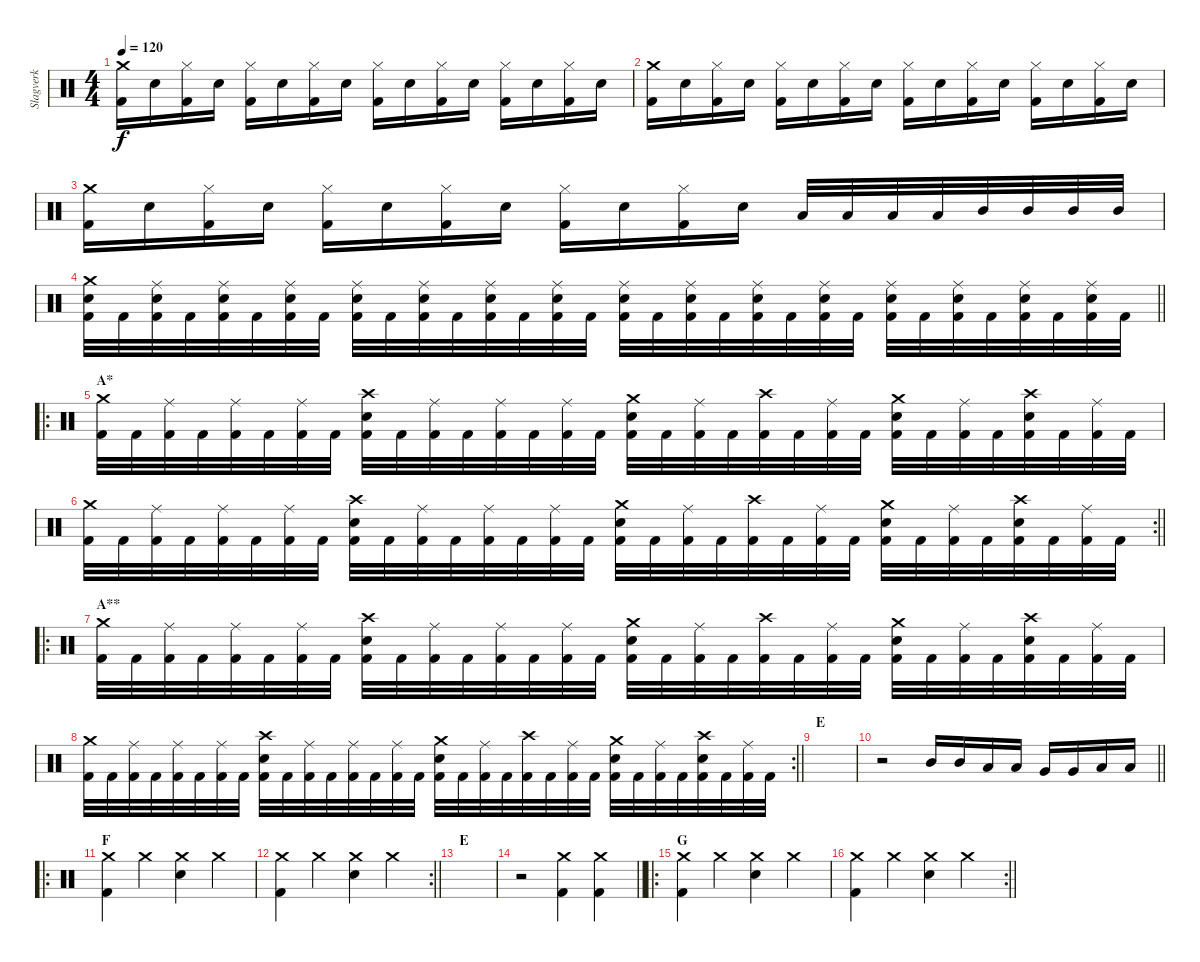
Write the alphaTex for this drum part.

\track ("Slagverk" "Slagverk") {instrument percussion}
\staff {score}
\articulation defaults
\ts (4 4)
\tempo 120
\clef neutral
\ks c
("Crash medium (hit)" "Kick (hit) 2").16{dy f} "Electric Snare (hit)".16 ("Hi-Hat (closed)" "Kick (hit) 2").16 "Electric Snare (hit)".16 ("Hi-Hat (closed)" "Kick (hit) 2").16 "Electric Snare (hit)".16 ("Hi-Hat (closed)" "Kick (hit) 2").16 "Electric Snare (hit)".16 ("Hi-Hat (closed)" "Kick (hit) 2").16 "Electric Snare (hit)".16 ("Hi-Hat (closed)" "Kick (hit) 2").16 "Electric Snare (hit)".16 ("Hi-Hat (closed)" "Kick (hit) 2").16 "Electric Snare (hit)".16 ("Hi-Hat (closed)" "Kick (hit) 2").16 "Electric Snare (hit)".16 |
("Crash medium (hit)" "Kick (hit) 2").16 "Electric Snare (hit)".16 ("Hi-Hat (closed)" "Kick (hit) 2").16 "Electric Snare (hit)".16 ("Hi-Hat (closed)" "Kick (hit) 2").16 "Electric Snare (hit)".16 ("Hi-Hat (closed)" "Kick (hit) 2").16 "Electric Snare (hit)".16 ("Hi-Hat (closed)" "Kick (hit) 2").16 "Electric Snare (hit)".16 ("Hi-Hat (closed)" "Kick (hit) 2").16 "Electric Snare (hit)".16 ("Hi-Hat (closed)" "Kick (hit) 2").16 "Electric Snare (hit)".16 ("Hi-Hat (closed)" "Kick (hit) 2").16 "Electric Snare (hit)".16 |
("Crash medium (hit)" "Kick (hit) 2").16 "Electric Snare (hit)".16 ("Hi-Hat (closed)" "Kick (hit) 2").16 "Electric Snare (hit)".16 ("Hi-Hat (closed)" "Kick (hit) 2").16 "Electric Snare (hit)".16 ("Hi-Hat (closed)" "Kick (hit) 2").16 "Electric Snare (hit)".16 ("Hi-Hat (closed)" "Kick (hit) 2").16 "Electric Snare (hit)".16 ("Hi-Hat (closed)" "Kick (hit) 2").16 "Electric Snare (hit)".16 "Low Tom (hit)".32 "Low Tom (hit)".32 "Low Tom (hit)".32 "Low Tom (hit)".32 "Mid Tom (hit)".32 "Mid Tom (hit)".32 "Mid Tom (hit)".32 "Mid Tom (hit)".32 |
\barLineRight lightlight
("Crash medium (hit)" "Electric Snare (hit)" "Kick (hit) 2").32 "Kick (hit) 2".32 ("Ride (middle)" "Electric Snare (hit)" "Kick (hit) 2").32 "Kick (hit) 2".32 ("Ride (middle)" "Electric Snare (hit)" "Kick (hit) 2").32 "Kick (hit) 2".32 ("Ride (middle)" "Electric Snare (hit)" "Kick (hit) 2").32 "Kick (hit) 2".32 ("Ride (middle)" "Electric Snare (hit)" "Kick (hit) 2").32 "Kick (hit) 2".32 ("Ride (middle)" "Electric Snare (hit)" "Kick (hit) 2").32 "Kick (hit) 2".32 ("Ride (middle)" "Electric Snare (hit)" "Kick (hit) 2").32 "Kick (hit) 2".32 ("Ride (middle)" "Electric Snare (hit)" "Kick (hit) 2").32 "Kick (hit) 2".32 ("Ride (middle)" "Electric Snare (hit)" "Kick (hit) 2").32 "Kick (hit) 2".32 ("Ride (middle)" "Electric Snare (hit)" "Kick (hit) 2").32 "Kick (hit) 2".32 ("Ride (middle)" "Electric Snare (hit)" "Kick (hit) 2").32 "Kick (hit) 2".32 ("Ride (middle)" "Electric Snare (hit)" "Kick (hit) 2").32 "Kick (hit) 2".32 ("Ride (middle)" "Electric Snare (hit)" "Kick (hit) 2").32 "Kick (hit) 2".32 ("Ride (middle)" "Electric Snare (hit)" "Kick (hit) 2").32 "Kick (hit) 2".32 ("Ride (middle)" "Electric Snare (hit)" "Kick (hit) 2").32 "Kick (hit) 2".32 ("Ride (middle)" "Electric Snare (hit)" "Kick (hit) 2").32 "Kick (hit) 2".32 |
\ro
\section ("" "A*")
("Crash medium (hit)" "Kick (hit) 2").32 "Kick (hit) 2".32 ("Ride (middle)" "Kick (hit) 2").32 "Kick (hit) 2".32 ("Ride (middle)" "Kick (hit) 2").32 "Kick (hit) 2".32 ("Ride (middle)" "Kick (hit) 2").32 "Kick (hit) 2".32 ("Crash high (hit)" "Electric Snare (hit)" "Kick (hit) 2").32 "Kick (hit) 2".32 ("Ride (middle)" "Kick (hit) 2").32 "Kick (hit) 2".32 ("Ride (middle)" "Kick (hit) 2").32 "Kick (hit) 2".32 ("Ride (middle)" "Kick (hit) 2").32 "Kick (hit) 2".32 ("Crash medium (hit)" "Electric Snare (hit)" "Kick (hit) 2").32 "Kick (hit) 2".32 ("Ride (middle)" "Kick (hit) 2").32 "Kick (hit) 2".32 ("Crash high (hit)" "Kick (hit) 2").32 "Kick (hit) 2".32 ("Ride (middle)" "Kick (hit) 2").32 "Kick (hit) 2".32 ("Crash medium (hit)" "Electric Snare (hit)" "Kick (hit) 2").32 "Kick (hit) 2".32 ("Ride (middle)" "Kick (hit) 2").32 "Kick (hit) 2".32 ("Crash high (hit)" "Electric Snare (hit)" "Kick (hit) 2").32 "Kick (hit) 2".32 ("Ride (middle)" "Kick (hit) 2").32 "Kick (hit) 2".32 |
\rc 2
\barLineRight lightlight
("Crash medium (hit)" "Kick (hit) 2").32 "Kick (hit) 2".32 ("Ride (middle)" "Kick (hit) 2").32 "Kick (hit) 2".32 ("Ride (middle)" "Kick (hit) 2").32 "Kick (hit) 2".32 ("Ride (middle)" "Kick (hit) 2").32 "Kick (hit) 2".32 ("Crash high (hit)" "Electric Snare (hit)" "Kick (hit) 2").32 "Kick (hit) 2".32 ("Ride (middle)" "Kick (hit) 2").32 "Kick (hit) 2".32 ("Ride (middle)" "Kick (hit) 2").32 "Kick (hit) 2".32 ("Ride (middle)" "Kick (hit) 2").32 "Kick (hit) 2".32 ("Crash medium (hit)" "Electric Snare (hit)" "Kick (hit) 2").32 "Kick (hit) 2".32 ("Ride (middle)" "Kick (hit) 2").32 "Kick (hit) 2".32 ("Crash high (hit)" "Kick (hit) 2").32 "Kick (hit) 2".32 ("Ride (middle)" "Kick (hit) 2").32 "Kick (hit) 2".32 ("Crash medium (hit)" "Electric Snare (hit)" "Kick (hit) 2").32 "Kick (hit) 2".32 ("Ride (middle)" "Kick (hit) 2").32 "Kick (hit) 2".32 ("Crash high (hit)" "Electric Snare (hit)" "Kick (hit) 2").32 "Kick (hit) 2".32 ("Ride (middle)" "Kick (hit) 2").32 "Kick (hit) 2".32 |
\ro
\section ("" "A**")
("Crash medium (hit)" "Kick (hit) 2").32 "Kick (hit) 2".32 ("Ride (middle)" "Kick (hit) 2").32 "Kick (hit) 2".32 ("Ride (middle)" "Kick (hit) 2").32 "Kick (hit) 2".32 ("Ride (middle)" "Kick (hit) 2").32 "Kick (hit) 2".32 ("Crash high (hit)" "Electric Snare (hit)" "Kick (hit) 2").32 "Kick (hit) 2".32 ("Ride (middle)" "Kick (hit) 2").32 "Kick (hit) 2".32 ("Ride (middle)" "Kick (hit) 2").32 "Kick (hit) 2".32 ("Ride (middle)" "Kick (hit) 2").32 "Kick (hit) 2".32 ("Crash medium (hit)" "Electric Snare (hit)" "Kick (hit) 2").32 "Kick (hit) 2".32 ("Ride (middle)" "Kick (hit) 2").32 "Kick (hit) 2".32 ("Crash high (hit)" "Kick (hit) 2").32 "Kick (hit) 2".32 ("Ride (middle)" "Kick (hit) 2").32 "Kick (hit) 2".32 ("Crash medium (hit)" "Electric Snare (hit)" "Kick (hit) 2").32 "Kick (hit) 2".32 ("Ride (middle)" "Kick (hit) 2").32 "Kick (hit) 2".32 ("Crash high (hit)" "Electric Snare (hit)" "Kick (hit) 2").32 "Kick (hit) 2".32 ("Ride (middle)" "Kick (hit) 2").32 "Kick (hit) 2".32 |
\rc 2
\barLineRight lightlight
("Crash medium (hit)" "Kick (hit) 2").32 "Kick (hit) 2".32 ("Ride (middle)" "Kick (hit) 2").32 "Kick (hit) 2".32 ("Ride (middle)" "Kick (hit) 2").32 "Kick (hit) 2".32 ("Ride (middle)" "Kick (hit) 2").32 "Kick (hit) 2".32 ("Crash high (hit)" "Electric Snare (hit)" "Kick (hit) 2").32 "Kick (hit) 2".32 ("Ride (middle)" "Kick (hit) 2").32 "Kick (hit) 2".32 ("Ride (middle)" "Kick (hit) 2").32 "Kick (hit) 2".32 ("Ride (middle)" "Kick (hit) 2").32 "Kick (hit) 2".32 ("Crash medium (hit)" "Electric Snare (hit)" "Kick (hit) 2").32 "Kick (hit) 2".32 ("Ride (middle)" "Kick (hit) 2").32 "Kick (hit) 2".32 ("Crash high (hit)" "Kick (hit) 2").32 "Kick (hit) 2".32 ("Ride (middle)" "Kick (hit) 2").32 "Kick (hit) 2".32 ("Crash medium (hit)" "Electric Snare (hit)" "Kick (hit) 2").32 "Kick (hit) 2".32 ("Ride (middle)" "Kick (hit) 2").32 "Kick (hit) 2".32 ("Crash high (hit)" "Electric Snare (hit)" "Kick (hit) 2").32 "Kick (hit) 2".32 ("Ride (middle)" "Kick (hit) 2").32 "Kick (hit) 2".32 |
\section ("" "E")
|
\barLineRight lightlight
r.2 "Mid Tom (hit)".16 "Mid Tom (hit)".16 "Low Tom (hit)".16 "Low Tom (hit)".16 "Very Low Tom (hit)".16 "Very Low Tom (hit)".16 "Low Tom (hit)".16 "Low Tom (hit)".16 |
\ro
\section ("" "F")
("Crash medium (hit)" "Kick (hit) 2").4 "Crash medium (hit)".4 ("Crash medium (hit)" "Electric Snare (hit)").4 "Crash medium (hit)".4 |
\rc 2
\barLineRight lightlight
("Crash medium (hit)" "Kick (hit) 2").4 "Crash medium (hit)".4 ("Crash medium (hit)" "Electric Snare (hit)").4 "Crash medium (hit)".4 |
\section ("" "E")
|
\barLineRight lightlight
r.2 ("Crash medium (hit)" "Kick (hit) 2").4 ("Crash medium (hit)" "Kick (hit) 2").4 |
\ro
\section ("" "G")
("Crash medium (hit)" "Kick (hit) 2").4 "Crash medium (hit)".4 ("Crash medium (hit)" "Electric Snare (hit)").4 "Crash medium (hit)".4 |
\rc 2
\barLineRight lightlight
("Crash medium (hit)" "Kick (hit) 2").4 "Crash medium (hit)".4 ("Crash medium (hit)" "Electric Snare (hit)").4 "Crash medium (hit)".4
